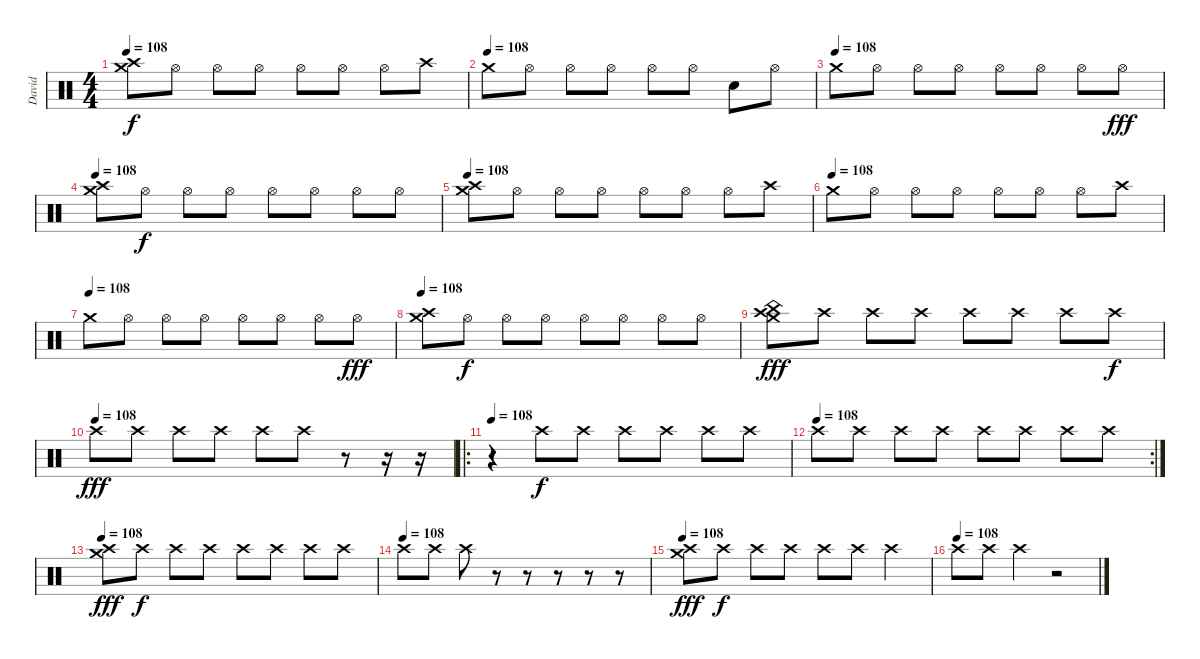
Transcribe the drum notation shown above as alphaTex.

\track ("David" "David") {instrument percussion}
\staff {score}
\articulation defaults
\ts (4 4)
\tempo 108
\clef neutral
\ks c
("Crash medium (hit)" "Crash high (hit)").8{dy f} "Hi-Hat (open)".8 "Hi-Hat (open)".8 "Hi-Hat (open)".8 "Hi-Hat (open)".8 "Hi-Hat (open)".8 "Hi-Hat (open)".8 "Crash high (hit)".8 |
\tempo (108)
"Crash medium (hit)".8 "Hi-Hat (open)".8 "Hi-Hat (open)".8 "Hi-Hat (open)".8 "Hi-Hat (open)".8 "Hi-Hat (open)".8 "Snare (hit) 2".8 "Hi-Hat (open)".8 |
\tempo (108)
"Crash medium (hit)".8 "Hi-Hat (open)".8 "Hi-Hat (open)".8 "Hi-Hat (open)".8 "Hi-Hat (open)".8 "Hi-Hat (open)".8 "Hi-Hat (open)".8 "Hi-Hat (open)".8{dy fff} |
\tempo 108
("Crash medium (hit)" "Crash high (hit)").8 "Hi-Hat (open)".8{dy f} "Hi-Hat (open)".8 "Hi-Hat (open)".8 "Hi-Hat (open)".8 "Hi-Hat (open)".8 "Hi-Hat (open)".8 "Hi-Hat (open)".8 |
\tempo 108
("Crash medium (hit)" "Crash high (hit)").8 "Hi-Hat (open)".8 "Hi-Hat (open)".8 "Hi-Hat (open)".8 "Hi-Hat (open)".8 "Hi-Hat (open)".8 "Hi-Hat (open)".8 "Crash high (hit)".8 |
\tempo (108)
"Crash medium (hit)".8 "Hi-Hat (open)".8 "Hi-Hat (open)".8 "Hi-Hat (open)".8 "Hi-Hat (open)".8 "Hi-Hat (open)".8 "Hi-Hat (open)".8 "Crash high (hit)".8 |
\tempo (108)
"Crash medium (hit)".8 "Hi-Hat (open)".8 "Hi-Hat (open)".8 "Hi-Hat (open)".8 "Hi-Hat (open)".8 "Hi-Hat (open)".8 "Hi-Hat (open)".8 "Hi-Hat (open)".8{dy fff} |
\tempo 108
("Crash medium (hit)" "Crash high (hit)").8 "Hi-Hat (open)".8{dy f} "Hi-Hat (open)".8 "Hi-Hat (open)".8 "Hi-Hat (open)".8 "Hi-Hat (open)".8 "Hi-Hat (open)".8 "Hi-Hat (open)".8 |
("China (hit)" "Crash high (hit)" "Crash medium (hit)").8{dy fff} "Crash high (hit)".8 "Crash high (hit)".8 "Crash high (hit)".8 "Crash high (hit)".8 "Crash high (hit)".8 "Crash high (hit)".8 "Crash high (hit)".8{dy f} |
\tempo (108)
"Crash high (hit)".8{dy fff} "Crash high (hit)".8 "Crash high (hit)".8 "Crash high (hit)".8 "Crash high (hit)".8 "Crash high (hit)".8 r.8 r.16 r.16 |
\ro
\tempo 108
r.4 "Crash high (hit)".8{dy f} "Crash high (hit)".8 "Crash high (hit)".8 "Crash high (hit)".8 "Crash high (hit)".8 "Crash high (hit)".8 |
\rc 2
\tempo (108)
"Crash high (hit)".8 "Crash high (hit)".8 "Crash high (hit)".8 "Crash high (hit)".8 "Crash high (hit)".8 "Crash high (hit)".8 "Crash high (hit)".8 "Crash high (hit)".8 |
\tempo 108
("Crash high (hit)" "Crash medium (hit)").8{dy fff} "Crash high (hit)".8{dy f} "Crash high (hit)".8 "Crash high (hit)".8 "Crash high (hit)".8 "Crash high (hit)".8 "Crash high (hit)".8 "Crash high (hit)".8 |
\tempo (108)
"Crash high (hit)".8 "Crash high (hit)".8 "Crash high (hit)".8 r.8 r.8 r.8 r.8 r.8 |
\tempo 108
("Crash high (hit)" "Crash medium (hit)").8{dy fff} "Crash high (hit)".8{dy f} "Crash high (hit)".8 "Crash high (hit)".8 "Crash high (hit)".8 "Crash high (hit)".8 "Crash high (hit)".4 |
\tempo (108)
"Crash high (hit)".8 "Crash high (hit)".8 "Crash high (hit)".4 r.2
